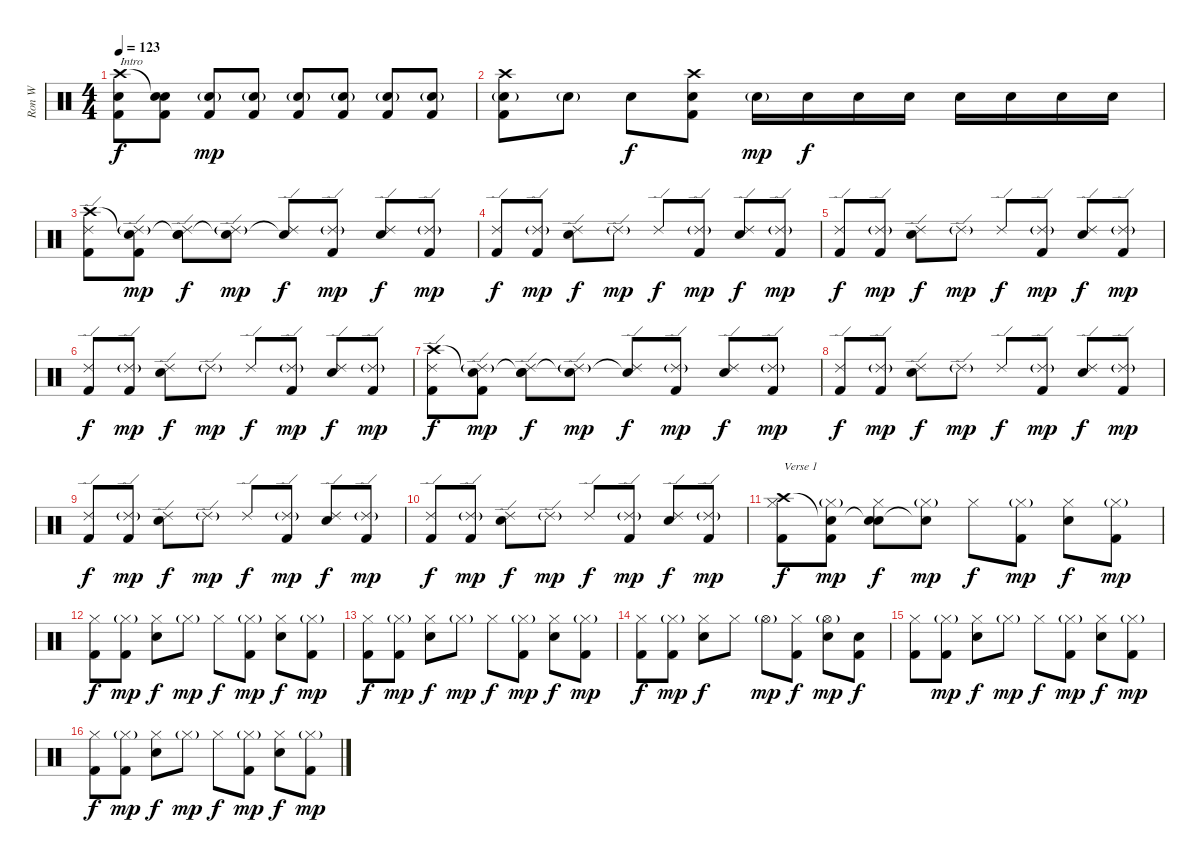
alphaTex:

\track ("Ron W" "Ron W") {instrument percussion}
\staff {score}
\articulation defaults
\ts (4 4)
\tempo 123
\clef neutral
\ks c
("Crash high (hit)" "Electric Snare (hit)" "Kick (hit) 2").8{txt "Intro" dy f} ("Snare (hit)"{t} "Electric Snare (hit)" "Kick (hit) 2").8 ("Electric Snare (hit)"{g} "Kick (hit) 2").8{dy mp} ("Electric Snare (hit)"{g} "Kick (hit) 2").8 ("Electric Snare (hit)"{g} "Kick (hit) 2").8 ("Electric Snare (hit)"{g} "Kick (hit) 2").8 ("Electric Snare (hit)"{g} "Kick (hit) 2").8 ("Electric Snare (hit)"{g} "Kick (hit) 2").8 |
("Crash high (hit)" "Electric Snare (hit)"{g} "Kick (hit) 2").8 "Electric Snare (hit)"{g}.8 "Electric Snare (hit)".8{dy f} ("Crash high (hit)" "Electric Snare (hit)" "Kick (hit) 2").8 "Electric Snare (hit)"{g}.16{dy mp} "Electric Snare (hit)".16{dy f} "Electric Snare (hit)".16 "Electric Snare (hit)".16 "Electric Snare (hit)".16 "Electric Snare (hit)".16 "Electric Snare (hit)".16 "Electric Snare (hit)".16 |
("Crash high (hit)" "Ride (edge) 2" "Kick (hit) 2").8 ("Snare (hit)"{t} "Ride (edge) 2"{g} "Kick (hit) 2").8{dy mp} ("Snare (hit)"{t} "Ride (edge) 2" "Electric Snare (hit)").8{dy f} ("Snare (hit)"{t} "Ride (edge) 2"{g}).8{dy mp} ("Snare (hit)"{t} "Ride (edge) 2").8{dy f} ("Ride (edge) 2"{g} "Kick (hit) 2").8{dy mp} ("Ride (edge) 2" "Electric Snare (hit)").8{dy f} ("Ride (edge) 2"{g} "Kick (hit) 2").8{dy mp} |
("Ride (edge) 2" "Kick (hit) 2").8{dy f} ("Ride (edge) 2"{g} "Kick (hit) 2").8{dy mp} ("Ride (edge) 2" "Electric Snare (hit)").8{dy f} "Ride (edge) 2"{g}.8{dy mp} "Ride (edge) 2".8{dy f} ("Ride (edge) 2"{g} "Kick (hit) 2").8{dy mp} ("Ride (edge) 2" "Electric Snare (hit)").8{dy f} ("Ride (edge) 2"{g} "Kick (hit) 2").8{dy mp} |
("Ride (edge) 2" "Kick (hit) 2").8{dy f} ("Ride (edge) 2"{g} "Kick (hit) 2").8{dy mp} ("Ride (edge) 2" "Electric Snare (hit)").8{dy f} "Ride (edge) 2"{g}.8{dy mp} "Ride (edge) 2".8{dy f} ("Ride (edge) 2"{g} "Kick (hit) 2").8{dy mp} ("Ride (edge) 2" "Electric Snare (hit)").8{dy f} ("Ride (edge) 2"{g} "Kick (hit) 2").8{dy mp} |
("Ride (edge) 2" "Kick (hit) 2").8{dy f} ("Ride (edge) 2"{g} "Kick (hit) 2").8{dy mp} ("Ride (edge) 2" "Electric Snare (hit)").8{dy f} "Ride (edge) 2"{g}.8{dy mp} "Ride (edge) 2".8{dy f} ("Ride (edge) 2"{g} "Kick (hit) 2").8{dy mp} ("Ride (edge) 2" "Electric Snare (hit)").8{dy f} ("Ride (edge) 2"{g} "Kick (hit) 2").8{dy mp} |
("Crash high (hit)" "Ride (edge) 2" "Kick (hit) 2").8{dy f} ("Snare (hit)"{t} "Ride (edge) 2"{g} "Kick (hit) 2").8{dy mp} ("Snare (hit)"{t} "Ride (edge) 2" "Electric Snare (hit)").8{dy f} ("Snare (hit)"{t} "Ride (edge) 2"{g}).8{dy mp} ("Snare (hit)"{t} "Ride (edge) 2").8{dy f} ("Ride (edge) 2"{g} "Kick (hit) 2").8{dy mp} ("Ride (edge) 2" "Electric Snare (hit)").8{dy f} ("Ride (edge) 2"{g} "Kick (hit) 2").8{dy mp} |
("Ride (edge) 2" "Kick (hit) 2").8{dy f} ("Ride (edge) 2"{g} "Kick (hit) 2").8{dy mp} ("Ride (edge) 2" "Electric Snare (hit)").8{dy f} "Ride (edge) 2"{g}.8{dy mp} "Ride (edge) 2".8{dy f} ("Ride (edge) 2"{g} "Kick (hit) 2").8{dy mp} ("Ride (edge) 2" "Electric Snare (hit)").8{dy f} ("Ride (edge) 2"{g} "Kick (hit) 2").8{dy mp} |
("Ride (edge) 2" "Kick (hit) 2").8{dy f} ("Ride (edge) 2"{g} "Kick (hit) 2").8{dy mp} ("Ride (edge) 2" "Electric Snare (hit)").8{dy f} "Ride (edge) 2"{g}.8{dy mp} "Ride (edge) 2".8{dy f} ("Ride (edge) 2"{g} "Kick (hit) 2").8{dy mp} ("Ride (edge) 2" "Electric Snare (hit)").8{dy f} ("Ride (edge) 2"{g} "Kick (hit) 2").8{dy mp} |
("Ride (edge) 2" "Kick (hit) 2").8{dy f} ("Ride (edge) 2"{g} "Kick (hit) 2").8{dy mp} ("Ride (edge) 2" "Electric Snare (hit)").8{dy f} "Ride (edge) 2"{g}.8{dy mp} "Ride (edge) 2".8{dy f} ("Ride (edge) 2"{g} "Kick (hit) 2").8{dy mp} ("Ride (edge) 2" "Electric Snare (hit)").8{dy f} ("Ride (edge) 2"{g} "Kick (hit) 2").8{dy mp} |
("Crash high (hit)" "Hi-Hat (closed)" "Kick (hit) 2").8{txt "Verse 1" dy f balance 8} ("Snare (hit)"{t} "Hi-Hat (closed)"{g} "Kick (hit) 2").8{dy mp balance 8} ("Snare (hit)"{t} "Hi-Hat (closed)" "Electric Snare (hit)").8{dy f balance 8} ("Snare (hit)"{t} "Hi-Hat (closed)"{g}).8{dy mp balance 8} "Hi-Hat (closed)".8{dy f} ("Hi-Hat (closed)"{g} "Kick (hit) 2").8{dy mp balance 8} ("Hi-Hat (closed)" "Electric Snare (hit)").8{dy f} ("Hi-Hat (closed)"{g} "Kick (hit) 2").8{dy mp} |
("Hi-Hat (closed)" "Kick (hit) 2").8{dy f balance 8} ("Hi-Hat (closed)"{g} "Kick (hit) 2").8{dy mp} ("Hi-Hat (closed)" "Electric Snare (hit)").8{dy f} "Hi-Hat (closed)"{g}.8{dy mp} "Hi-Hat (closed)".8{dy f} ("Hi-Hat (closed)"{g} "Kick (hit) 2").8{dy mp} ("Hi-Hat (closed)" "Electric Snare (hit)").8{dy f} ("Hi-Hat (closed)"{g} "Kick (hit) 2").8{dy mp} |
("Hi-Hat (closed)" "Kick (hit) 2").8{dy f balance 8} ("Hi-Hat (closed)"{g} "Kick (hit) 2").8{dy mp} ("Hi-Hat (closed)" "Electric Snare (hit)").8{dy f} "Hi-Hat (closed)"{g}.8{dy mp} "Hi-Hat (closed)".8{dy f} ("Hi-Hat (closed)"{g} "Kick (hit) 2").8{dy mp} ("Hi-Hat (closed)" "Electric Snare (hit)").8{dy f} ("Hi-Hat (closed)"{g} "Kick (hit) 2").8{dy mp} |
("Hi-Hat (closed)" "Kick (hit) 2").8{dy f balance 8} ("Hi-Hat (closed)"{g} "Kick (hit) 2").8{dy mp} ("Hi-Hat (closed)" "Electric Snare (hit)").8{dy f} "Hi-Hat (closed)".8 "Hi-Hat (open)"{g}.8{dy mp} ("Hi-Hat (closed)" "Kick (hit) 2").8{dy f} ("Hi-Hat (open)"{g} "Electric Snare (hit)").8{dy mp} ("Snare (hit)" "Kick (hit) 2").8{dy f} |
("Hi-Hat (closed)" "Kick (hit) 2").8{balance 8} ("Hi-Hat (closed)"{g} "Kick (hit) 2").8{dy mp} ("Hi-Hat (closed)" "Electric Snare (hit)").8{dy f} "Hi-Hat (closed)"{g}.8{dy mp} "Hi-Hat (closed)".8{dy f} ("Hi-Hat (closed)"{g} "Kick (hit) 2").8{dy mp} ("Hi-Hat (closed)" "Electric Snare (hit)").8{dy f} ("Hi-Hat (closed)"{g} "Kick (hit) 2").8{dy mp} |
("Hi-Hat (closed)" "Kick (hit) 2").8{dy f balance 8} ("Hi-Hat (closed)"{g} "Kick (hit) 2").8{dy mp} ("Hi-Hat (closed)" "Electric Snare (hit)").8{dy f} "Hi-Hat (closed)"{g}.8{dy mp} "Hi-Hat (closed)".8{dy f} ("Hi-Hat (closed)"{g} "Kick (hit) 2").8{dy mp} ("Hi-Hat (closed)" "Electric Snare (hit)").8{dy f} ("Hi-Hat (closed)"{g} "Kick (hit) 2").8{dy mp}
